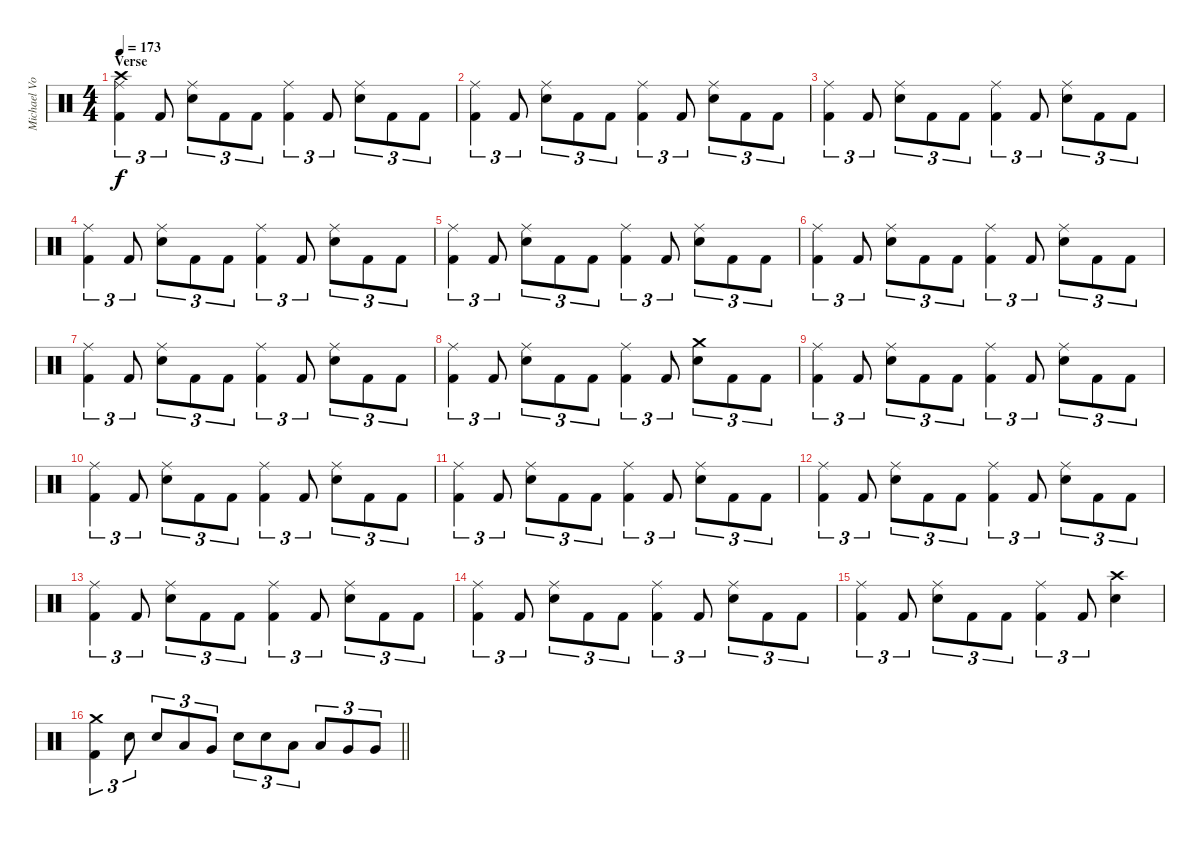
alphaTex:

\track ("Michael Von Knorring " "Michael Vo") {instrument percussion}
\staff {score}
\articulation defaults
\ts (4 4)
\section ("" "Verse")
\tempo 173
\clef neutral
\ks c
("Crash high (hit)" "Ride (middle)" "Kick (hit) 2").4{tu (3 2) dy f} "Kick (hit) 2".8{tu (3 2)} ("Ride (middle)" "Snare (hit) 2").8{tu (3 2)} "Kick (hit) 2".8{tu (3 2)} "Kick (hit) 2".8{tu (3 2)} ("Ride (middle)" "Kick (hit) 2").4{tu (3 2)} "Kick (hit) 2".8{tu (3 2)} ("Ride (middle)" "Snare (hit) 2").8{tu (3 2)} "Kick (hit) 2".8{tu (3 2)} "Kick (hit) 2".8{tu (3 2)} |
("Ride (middle)" "Kick (hit) 2").4{tu (3 2)} "Kick (hit) 2".8{tu (3 2)} ("Ride (middle)" "Snare (hit) 2").8{tu (3 2)} "Kick (hit) 2".8{tu (3 2)} "Kick (hit) 2".8{tu (3 2)} ("Ride (middle)" "Kick (hit) 2").4{tu (3 2)} "Kick (hit) 2".8{tu (3 2)} ("Ride (middle)" "Snare (hit) 2").8{tu (3 2)} "Kick (hit) 2".8{tu (3 2)} "Kick (hit) 2".8{tu (3 2)} |
("Ride (middle)" "Kick (hit) 2").4{tu (3 2)} "Kick (hit) 2".8{tu (3 2)} ("Ride (middle)" "Snare (hit) 2").8{tu (3 2)} "Kick (hit) 2".8{tu (3 2)} "Kick (hit) 2".8{tu (3 2)} ("Ride (middle)" "Kick (hit) 2").4{tu (3 2)} "Kick (hit) 2".8{tu (3 2)} ("Ride (middle)" "Snare (hit) 2").8{tu (3 2)} "Kick (hit) 2".8{tu (3 2)} "Kick (hit) 2".8{tu (3 2)} |
("Ride (middle)" "Kick (hit) 2").4{tu (3 2)} "Kick (hit) 2".8{tu (3 2)} ("Ride (middle)" "Snare (hit) 2").8{tu (3 2)} "Kick (hit) 2".8{tu (3 2)} "Kick (hit) 2".8{tu (3 2)} ("Ride (middle)" "Kick (hit) 2").4{tu (3 2)} "Kick (hit) 2".8{tu (3 2)} ("Ride (middle)" "Snare (hit) 2").8{tu (3 2)} "Kick (hit) 2".8{tu (3 2)} "Kick (hit) 2".8{tu (3 2)} |
("Ride (middle)" "Kick (hit) 2").4{tu (3 2)} "Kick (hit) 2".8{tu (3 2)} ("Ride (middle)" "Snare (hit) 2").8{tu (3 2)} "Kick (hit) 2".8{tu (3 2)} "Kick (hit) 2".8{tu (3 2)} ("Ride (middle)" "Kick (hit) 2").4{tu (3 2)} "Kick (hit) 2".8{tu (3 2)} ("Ride (middle)" "Snare (hit) 2").8{tu (3 2)} "Kick (hit) 2".8{tu (3 2)} "Kick (hit) 2".8{tu (3 2)} |
("Ride (middle)" "Kick (hit) 2").4{tu (3 2)} "Kick (hit) 2".8{tu (3 2)} ("Ride (middle)" "Snare (hit) 2").8{tu (3 2)} "Kick (hit) 2".8{tu (3 2)} "Kick (hit) 2".8{tu (3 2)} ("Ride (middle)" "Kick (hit) 2").4{tu (3 2)} "Kick (hit) 2".8{tu (3 2)} ("Ride (middle)" "Snare (hit) 2").8{tu (3 2)} "Kick (hit) 2".8{tu (3 2)} "Kick (hit) 2".8{tu (3 2)} |
("Ride (middle)" "Kick (hit) 2").4{tu (3 2)} "Kick (hit) 2".8{tu (3 2)} ("Ride (middle)" "Snare (hit) 2").8{tu (3 2)} "Kick (hit) 2".8{tu (3 2)} "Kick (hit) 2".8{tu (3 2)} ("Ride (middle)" "Kick (hit) 2").4{tu (3 2)} "Kick (hit) 2".8{tu (3 2)} ("Ride (middle)" "Snare (hit) 2").8{tu (3 2)} "Kick (hit) 2".8{tu (3 2)} "Kick (hit) 2".8{tu (3 2)} |
("Ride (middle)" "Kick (hit) 2").4{tu (3 2)} "Kick (hit) 2".8{tu (3 2)} ("Ride (middle)" "Snare (hit) 2").8{tu (3 2)} "Kick (hit) 2".8{tu (3 2)} "Kick (hit) 2".8{tu (3 2)} ("Ride (middle)" "Kick (hit) 2").4{tu (3 2)} "Kick (hit) 2".8{tu (3 2)} ("Crash medium (hit)" "Snare (hit) 2").8{tu (3 2)} "Kick (hit) 2".8{tu (3 2)} "Kick (hit) 2".8{tu (3 2)} |
("Ride (middle)" "Kick (hit) 2").4{tu (3 2)} "Kick (hit) 2".8{tu (3 2)} ("Ride (middle)" "Snare (hit) 2").8{tu (3 2)} "Kick (hit) 2".8{tu (3 2)} "Kick (hit) 2".8{tu (3 2)} ("Ride (middle)" "Kick (hit) 2").4{tu (3 2)} "Kick (hit) 2".8{tu (3 2)} ("Ride (middle)" "Snare (hit) 2").8{tu (3 2)} "Kick (hit) 2".8{tu (3 2)} "Kick (hit) 2".8{tu (3 2)} |
("Ride (middle)" "Kick (hit) 2").4{tu (3 2)} "Kick (hit) 2".8{tu (3 2)} ("Ride (middle)" "Snare (hit) 2").8{tu (3 2)} "Kick (hit) 2".8{tu (3 2)} "Kick (hit) 2".8{tu (3 2)} ("Ride (middle)" "Kick (hit) 2").4{tu (3 2)} "Kick (hit) 2".8{tu (3 2)} ("Ride (middle)" "Snare (hit) 2").8{tu (3 2)} "Kick (hit) 2".8{tu (3 2)} "Kick (hit) 2".8{tu (3 2)} |
("Ride (middle)" "Kick (hit) 2").4{tu (3 2)} "Kick (hit) 2".8{tu (3 2)} ("Ride (middle)" "Snare (hit) 2").8{tu (3 2)} "Kick (hit) 2".8{tu (3 2)} "Kick (hit) 2".8{tu (3 2)} ("Ride (middle)" "Kick (hit) 2").4{tu (3 2)} "Kick (hit) 2".8{tu (3 2)} ("Ride (middle)" "Snare (hit) 2").8{tu (3 2)} "Kick (hit) 2".8{tu (3 2)} "Kick (hit) 2".8{tu (3 2)} |
("Ride (middle)" "Kick (hit) 2").4{tu (3 2)} "Kick (hit) 2".8{tu (3 2)} ("Ride (middle)" "Snare (hit) 2").8{tu (3 2)} "Kick (hit) 2".8{tu (3 2)} "Kick (hit) 2".8{tu (3 2)} ("Ride (middle)" "Kick (hit) 2").4{tu (3 2)} "Kick (hit) 2".8{tu (3 2)} ("Ride (middle)" "Snare (hit) 2").8{tu (3 2)} "Kick (hit) 2".8{tu (3 2)} "Kick (hit) 2".8{tu (3 2)} |
("Ride (middle)" "Kick (hit) 2").4{tu (3 2)} "Kick (hit) 2".8{tu (3 2)} ("Ride (middle)" "Snare (hit) 2").8{tu (3 2)} "Kick (hit) 2".8{tu (3 2)} "Kick (hit) 2".8{tu (3 2)} ("Ride (middle)" "Kick (hit) 2").4{tu (3 2)} "Kick (hit) 2".8{tu (3 2)} ("Ride (middle)" "Snare (hit) 2").8{tu (3 2)} "Kick (hit) 2".8{tu (3 2)} "Kick (hit) 2".8{tu (3 2)} |
("Ride (middle)" "Kick (hit) 2").4{tu (3 2)} "Kick (hit) 2".8{tu (3 2)} ("Ride (middle)" "Snare (hit) 2").8{tu (3 2)} "Kick (hit) 2".8{tu (3 2)} "Kick (hit) 2".8{tu (3 2)} ("Ride (middle)" "Kick (hit) 2").4{tu (3 2)} "Kick (hit) 2".8{tu (3 2)} ("Ride (middle)" "Snare (hit) 2").8{tu (3 2)} "Kick (hit) 2".8{tu (3 2)} "Kick (hit) 2".8{tu (3 2)} |
("Ride (middle)" "Kick (hit) 2").4{tu (3 2)} "Kick (hit) 2".8{tu (3 2)} ("Ride (middle)" "Snare (hit) 2").8{tu (3 2)} "Kick (hit) 2".8{tu (3 2)} "Kick (hit) 2".8{tu (3 2)} ("Ride (middle)" "Kick (hit) 2").4{tu (3 2)} "Kick (hit) 2".8{tu (3 2)} ("Crash high (hit)" "Snare (hit) 2").4 |
\barLineRight lightlight
("Crash medium (hit)" "Kick (hit) 2").4{tu (3 2)} "Snare (hit) 2".8{tu (3 2)} "Snare (hit) 2".8{tu (3 2)} "Low Tom (hit)".8{tu (3 2)} "Very Low Tom (hit)".8{tu (3 2)} "Snare (hit) 2".8{tu (3 2)} "Snare (hit) 2".8{tu (3 2)} "Low Tom (hit)".8{tu (3 2)} "Low Tom (hit)".8{tu (3 2)} "Very Low Tom (hit)".8{tu (3 2)} "Very Low Tom (hit)".8{tu (3 2)}
